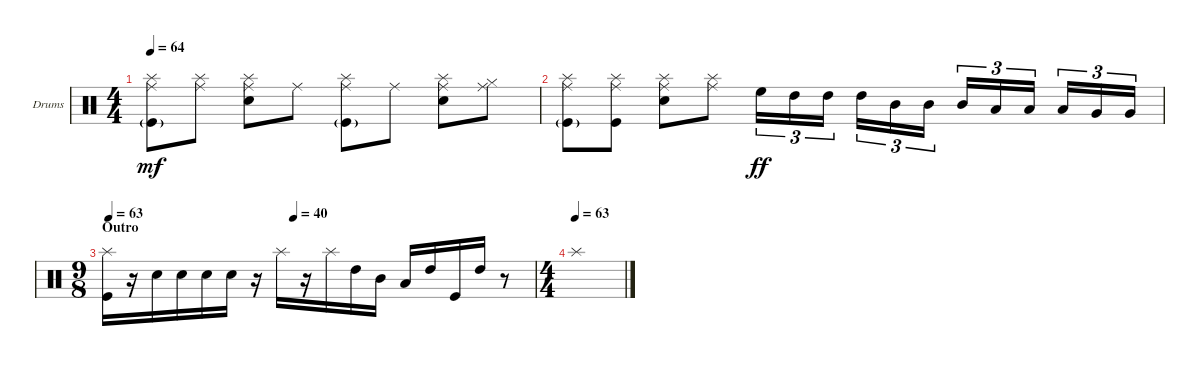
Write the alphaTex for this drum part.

\defaultSystemsLayout 4
\bracketExtendMode groupsimilarinstruments
\firstSystemTrackNameOrientation horizontal
\otherSystemsTrackNameOrientation horizontal
\track ("Drumkit" "Drums") {instrument percussion}
\staff {score}
\articulation defaults
\ts (4 4)
\tempo 64
\clef neutral
\ks c
("Ride (middle)" "Splash (hit)" "Kick (hit)"{g}).8{dy mf} ("Ride (middle)" "Splash (hit)").8 ("Ride (middle)" "Snare (hit) 2" "Splash (hit)").8 "Ride (middle)".8 ("Ride (middle)" "Kick (hit)"{g} "Splash (hit)").8 "Ride (middle)".8 ("Ride (middle)" "Snare (hit) 2" "Splash (hit)").8 ("Ride (middle)" "Hi-Hat (closed)").8 |
("Ride (middle)" "Kick (hit)"{g} "Splash (hit)").8 ("Ride (middle)" "Kick (hit)" "Splash (hit)").8 ("Ride (middle)" "Snare (hit) 2" "Splash (hit)").8 ("Ride (middle)" "Splash (hit)").8 "High Floor Tom (hit)".16{tu (3 2) dy ff} "High Tom (hit)".16{tu (3 2)} "High Tom (hit)".16{tu (3 2)} "High Tom (hit)".16{tu (3 2)} "Mid Tom (hit)".16{tu (3 2)} "Mid Tom (hit)".16{tu (3 2)} "Mid Tom (hit)".16{tu (3 2)} "Low Tom (hit)".16{tu (3 2)} "Low Tom (hit)".16{tu (3 2)} "Low Tom (hit)".16{tu (3 2)} "Very Low Tom (hit)".16{tu (3 2)} "Very Low Tom (hit)".16{tu (3 2)} |
\ts (9 8)
\section ("" "Outro")
\tempo (63 0.00625)
\tempo (40 0.4375)
("Splash (hit)" "Kick (hit)").16 r.16 "Snare (hit) 2".16 "Snare (hit) 2".16 "Snare (hit) 2".16 "Snare (hit) 2".16 r.16 "Splash (hit)".16 r.16 "Splash (hit)".16 "High Tom (hit)".16 "Mid Tom (hit)".16 "Low Tom (hit)".16 "High Tom (hit)".16 "Kick (hit)".16 "High Tom (hit)".16 r.8 |
\ts (4 4)
\tempo (63)
"Splash (hit)".1
